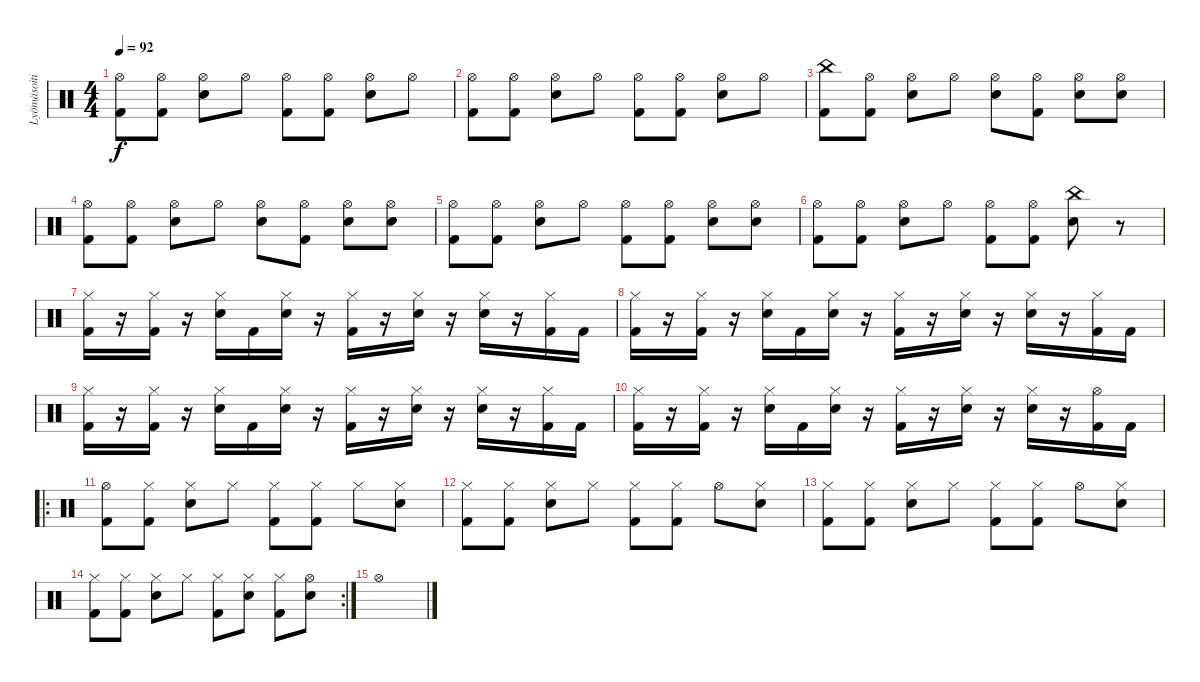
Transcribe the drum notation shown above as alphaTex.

\track ("Lyömäsoitin" "Lyömäsoiti") {instrument percussion}
\staff {score}
\articulation defaults
\ts (4 4)
\tempo 92
\clef neutral
\ks c
("Hi-Hat (open)" "Kick (hit) 2").8{dy f} ("Hi-Hat (open)" "Kick (hit) 2").8 ("Hi-Hat (open)" "Snare (hit) 2").8 "Hi-Hat (open)".8 ("Hi-Hat (open)" "Kick (hit) 2").8 ("Hi-Hat (open)" "Kick (hit) 2").8 ("Hi-Hat (open)" "Snare (hit) 2").8 "Hi-Hat (open)".8 |
("Hi-Hat (open)" "Kick (hit) 2").8 ("Hi-Hat (open)" "Kick (hit) 2").8 ("Hi-Hat (open)" "Snare (hit) 2").8 "Hi-Hat (open)".8 ("Hi-Hat (open)" "Kick (hit) 2").8 ("Hi-Hat (open)" "Kick (hit) 2").8 ("Hi-Hat (open)" "Snare (hit) 2").8 "Hi-Hat (open)".8 |
("China (hit)" "Kick (hit) 2").8 ("Hi-Hat (open)" "Kick (hit) 2").8 ("Hi-Hat (open)" "Snare (hit) 2").8 "Hi-Hat (open)".8 ("Hi-Hat (open)" "Snare (hit) 2").8 ("Hi-Hat (open)" "Kick (hit) 2").8 ("Hi-Hat (open)" "Snare (hit) 2").8 ("Hi-Hat (open)" "Snare (hit) 2").8 |
("Hi-Hat (open)" "Kick (hit) 2").8 ("Hi-Hat (open)" "Kick (hit) 2").8 ("Hi-Hat (open)" "Snare (hit) 2").8 "Hi-Hat (open)".8 ("Hi-Hat (open)" "Snare (hit) 2").8 ("Hi-Hat (open)" "Kick (hit) 2").8 ("Hi-Hat (open)" "Snare (hit) 2").8 ("Hi-Hat (open)" "Snare (hit) 2").8 |
("Hi-Hat (open)" "Kick (hit) 2").8 ("Hi-Hat (open)" "Kick (hit) 2").8 ("Hi-Hat (open)" "Snare (hit) 2").8 "Hi-Hat (open)".8 ("Hi-Hat (open)" "Kick (hit) 2").8 ("Hi-Hat (open)" "Kick (hit) 2").8 ("Hi-Hat (open)" "Snare (hit) 2").8 ("Hi-Hat (open)" "Snare (hit) 2").8 |
("Hi-Hat (open)" "Kick (hit) 2").8 ("Hi-Hat (open)" "Kick (hit) 2").8 ("Hi-Hat (open)" "Snare (hit) 2").8 "Hi-Hat (open)".8 ("Hi-Hat (open)" "Kick (hit) 2").8 ("Hi-Hat (open)" "Kick (hit) 2").8 ("China (hit)" "Snare (hit) 2").8 r.8 |
("Hi-Hat (closed)" "Kick (hit) 2").16 r.16 ("Hi-Hat (closed)" "Kick (hit) 2").16 r.16 ("Hi-Hat (closed)" "Snare (hit) 2").16 "Kick (hit) 2".16 ("Hi-Hat (closed)" "Snare (hit) 2").16 r.16 ("Hi-Hat (closed)" "Kick (hit) 2").16 r.16 ("Hi-Hat (closed)" "Snare (hit) 2").16 r.16 ("Hi-Hat (closed)" "Snare (hit) 2").16 r.16 ("Hi-Hat (closed)" "Kick (hit) 2").16 "Kick (hit) 2".16 |
("Hi-Hat (closed)" "Kick (hit) 2").16 r.16 ("Hi-Hat (closed)" "Kick (hit) 2").16 r.16 ("Hi-Hat (closed)" "Snare (hit) 2").16 "Kick (hit) 2".16 ("Hi-Hat (closed)" "Snare (hit) 2").16 r.16 ("Hi-Hat (closed)" "Kick (hit) 2").16 r.16 ("Hi-Hat (closed)" "Snare (hit) 2").16 r.16 ("Hi-Hat (closed)" "Snare (hit) 2").16 r.16 ("Hi-Hat (closed)" "Kick (hit) 2").16 "Kick (hit) 2".16 |
("Hi-Hat (closed)" "Kick (hit) 2").16 r.16 ("Hi-Hat (closed)" "Kick (hit) 2").16 r.16 ("Hi-Hat (closed)" "Snare (hit) 2").16 "Kick (hit) 2".16 ("Hi-Hat (closed)" "Snare (hit) 2").16 r.16 ("Hi-Hat (closed)" "Kick (hit) 2").16 r.16 ("Hi-Hat (closed)" "Snare (hit) 2").16 r.16 ("Hi-Hat (closed)" "Snare (hit) 2").16 r.16 ("Hi-Hat (closed)" "Kick (hit) 2").16 "Kick (hit) 2".16 |
("Hi-Hat (closed)" "Kick (hit) 2").16 r.16 ("Hi-Hat (closed)" "Kick (hit) 2").16 r.16 ("Hi-Hat (closed)" "Snare (hit) 2").16 "Kick (hit) 2".16 ("Hi-Hat (closed)" "Snare (hit) 2").16 r.16 ("Hi-Hat (closed)" "Kick (hit) 2").16 r.16 ("Hi-Hat (closed)" "Snare (hit) 2").16 r.16 ("Hi-Hat (closed)" "Snare (hit) 2").16 r.16 ("Hi-Hat (open)" "Kick (hit) 2").16 "Kick (hit) 2".16 |
\ro
("Hi-Hat (open)" "Kick (hit) 2").8 ("Hi-Hat (closed)" "Kick (hit) 2").8 ("Hi-Hat (closed)" "Snare (hit) 2").8 "Hi-Hat (closed)".8 ("Hi-Hat (closed)" "Kick (hit) 2").8 ("Hi-Hat (closed)" "Kick (hit) 2").8 "Hi-Hat (closed)".8 ("Hi-Hat (closed)" "Snare (hit) 2").8 |
("Hi-Hat (closed)" "Kick (hit) 2").8 ("Hi-Hat (closed)" "Kick (hit) 2").8 ("Hi-Hat (closed)" "Snare (hit) 2").8 "Hi-Hat (closed)".8 ("Hi-Hat (closed)" "Kick (hit) 2").8 ("Hi-Hat (closed)" "Kick (hit) 2").8 "Hi-Hat (open)".8 ("Hi-Hat (closed)" "Snare (hit) 2").8 |
("Hi-Hat (closed)" "Kick (hit) 2").8 ("Hi-Hat (closed)" "Kick (hit) 2").8 ("Hi-Hat (closed)" "Snare (hit) 2").8 "Hi-Hat (closed)".8 ("Hi-Hat (closed)" "Kick (hit) 2").8 ("Hi-Hat (closed)" "Kick (hit) 2").8 "Hi-Hat (open)".8 ("Hi-Hat (closed)" "Snare (hit) 2").8 |
\rc 2
("Hi-Hat (closed)" "Kick (hit) 2").8 ("Hi-Hat (closed)" "Kick (hit) 2").8 ("Hi-Hat (closed)" "Snare (hit) 2").8 "Hi-Hat (closed)".8 ("Hi-Hat (closed)" "Kick (hit) 2").8 ("Hi-Hat (closed)" "Snare (hit) 2").8 ("Hi-Hat (closed)" "Kick (hit) 2").8 ("Hi-Hat (open)" "Snare (hit) 2").8 |
"Hi-Hat (open)".1
